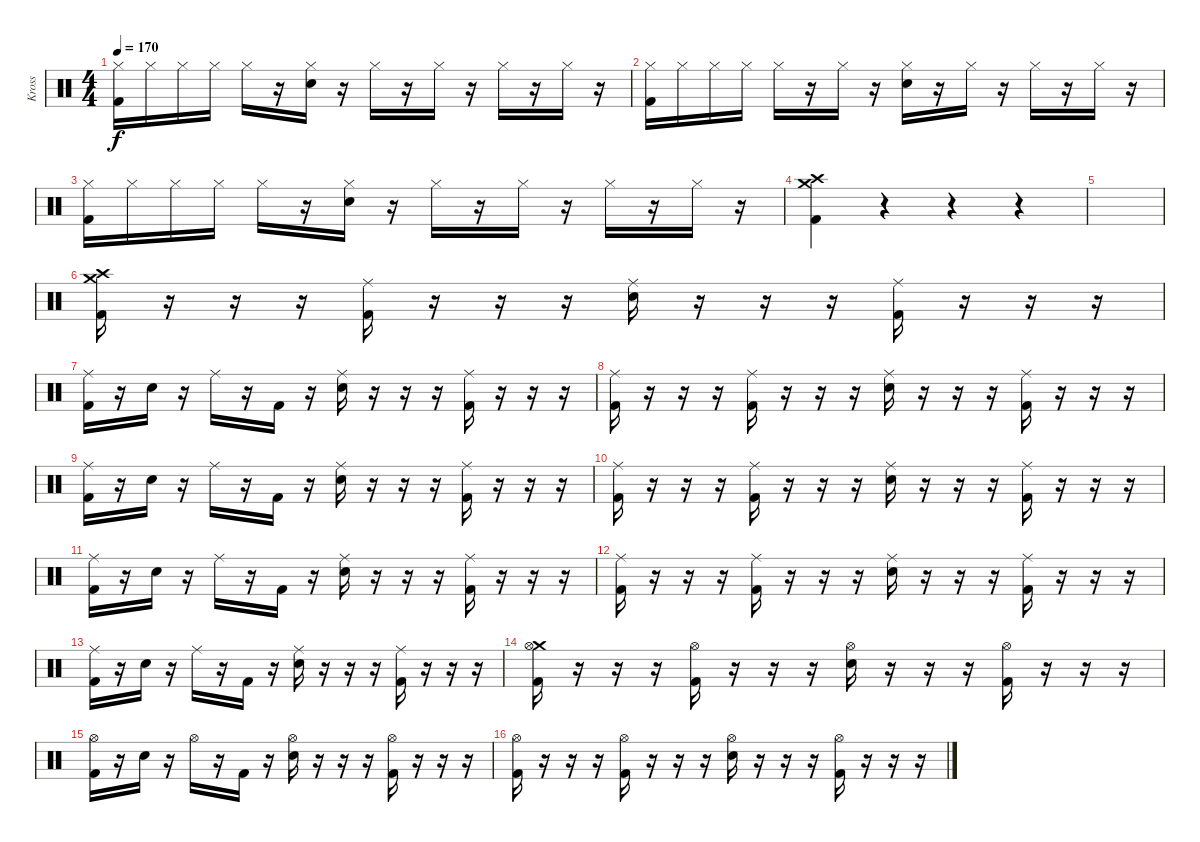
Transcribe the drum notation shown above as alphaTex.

\track ("Kross" "Kross") {instrument percussion}
\staff {score}
\articulation defaults
\ts (4 4)
\tempo 170
\clef neutral
\ks c
("Hi-Hat (closed)" "Kick (hit) 2").16{dy f} "Hi-Hat (closed)".16 "Hi-Hat (closed)".16 "Hi-Hat (closed)".16 "Hi-Hat (closed)".16 r.16 ("Hi-Hat (closed)" "Electric Snare (hit)").16 r.16 "Hi-Hat (closed)".16 r.16 "Hi-Hat (closed)".16 r.16 "Hi-Hat (closed)".16 r.16 "Hi-Hat (closed)".16 r.16 |
("Hi-Hat (closed)" "Kick (hit) 2").16 "Hi-Hat (closed)".16 "Hi-Hat (closed)".16 "Hi-Hat (closed)".16 "Hi-Hat (closed)".16 r.16 "Hi-Hat (closed)".16 r.16 ("Hi-Hat (closed)" "Electric Snare (hit)").16 r.16 "Hi-Hat (closed)".16 r.16 "Hi-Hat (closed)".16 r.16 "Hi-Hat (closed)".16 r.16 |
("Hi-Hat (closed)" "Kick (hit) 2").16 "Hi-Hat (closed)".16 "Hi-Hat (closed)".16 "Hi-Hat (closed)".16 "Hi-Hat (closed)".16 r.16 ("Hi-Hat (closed)" "Electric Snare (hit)").16 r.16 "Hi-Hat (closed)".16 r.16 "Hi-Hat (closed)".16 r.16 "Hi-Hat (closed)".16 r.16 "Hi-Hat (closed)".16 r.16 |
("Crash medium (hit)" "Crash high (hit)" "Kick (hit) 2").4 r.4 r.4 r.4 |
|
("Crash medium (hit)" "Crash high (hit)" "Kick (hit) 2").16{volume 14} r.16 r.16 r.16 ("Ride (middle)" "Kick (hit) 2").16 r.16 r.16 r.16 ("Ride (middle)" "Electric Snare (hit)").16 r.16 r.16 r.16 ("Ride (middle)" "Kick (hit) 2").16 r.16 r.16 r.16 |
("Ride (middle)" "Kick (hit) 2").16 r.16 "Electric Snare (hit)".16 r.16 "Ride (middle)".16 r.16 "Kick (hit) 2".16 r.16 ("Ride (middle)" "Electric Snare (hit)").16 r.16 r.16 r.16 ("Ride (middle)" "Kick (hit) 2").16 r.16 r.16 r.16 |
("Ride (middle)" "Kick (hit) 2").16 r.16 r.16 r.16 ("Ride (middle)" "Kick (hit) 2").16 r.16 r.16 r.16 ("Ride (middle)" "Electric Snare (hit)").16 r.16 r.16 r.16 ("Ride (middle)" "Kick (hit) 2").16 r.16 r.16 r.16 |
("Ride (middle)" "Kick (hit) 2").16 r.16 "Electric Snare (hit)".16 r.16 "Ride (middle)".16 r.16 "Kick (hit) 2".16 r.16 ("Ride (middle)" "Electric Snare (hit)").16 r.16 r.16 r.16 ("Ride (middle)" "Kick (hit) 2").16 r.16 r.16 r.16 |
("Ride (middle)" "Kick (hit) 2").16 r.16 r.16 r.16 ("Ride (middle)" "Kick (hit) 2").16 r.16 r.16 r.16 ("Ride (middle)" "Electric Snare (hit)").16 r.16 r.16 r.16 ("Ride (middle)" "Kick (hit) 2").16 r.16 r.16 r.16 |
("Ride (middle)" "Kick (hit) 2").16 r.16 "Electric Snare (hit)".16 r.16 "Ride (middle)".16 r.16 "Kick (hit) 2".16 r.16 ("Ride (middle)" "Electric Snare (hit)").16 r.16 r.16 r.16 ("Ride (middle)" "Kick (hit) 2").16 r.16 r.16 r.16 |
("Ride (middle)" "Kick (hit) 2").16 r.16 r.16 r.16 ("Ride (middle)" "Kick (hit) 2").16 r.16 r.16 r.16 ("Ride (middle)" "Electric Snare (hit)").16 r.16 r.16 r.16 ("Ride (middle)" "Kick (hit) 2").16 r.16 r.16 r.16 |
("Ride (middle)" "Kick (hit) 2").16 r.16 "Electric Snare (hit)".16 r.16 "Ride (middle)".16 r.16 "Kick (hit) 2".16 r.16 ("Ride (middle)" "Electric Snare (hit)").16 r.16 r.16 r.16 ("Ride (middle)" "Kick (hit) 2").16 r.16 r.16 r.16 |
("Crash medium (hit)" "Hi-Hat (open)" "Kick (hit) 2").16 r.16 r.16 r.16 ("Hi-Hat (open)" "Kick (hit) 2").16 r.16 r.16 r.16 ("Hi-Hat (open)" "Electric Snare (hit)").16 r.16 r.16 r.16 ("Hi-Hat (open)" "Kick (hit) 2").16 r.16 r.16 r.16 |
("Hi-Hat (open)" "Kick (hit) 2").16 r.16 "Electric Snare (hit)".16 r.16 "Hi-Hat (open)".16 r.16 "Kick (hit) 2".16 r.16 ("Hi-Hat (open)" "Electric Snare (hit)").16 r.16 r.16 r.16 ("Hi-Hat (open)" "Kick (hit) 2").16 r.16 r.16 r.16 |
("Hi-Hat (open)" "Kick (hit) 2").16 r.16 r.16 r.16 ("Hi-Hat (open)" "Kick (hit) 2").16 r.16 r.16 r.16 ("Hi-Hat (open)" "Electric Snare (hit)").16 r.16 r.16 r.16 ("Hi-Hat (open)" "Kick (hit) 2").16 r.16 r.16 r.16
